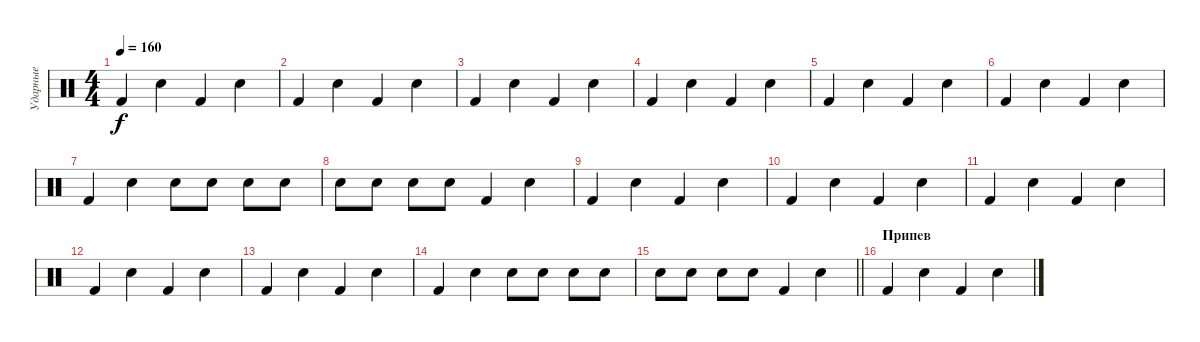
\track ("Ударные" "Ударные") {instrument percussion}
\staff {score}
\articulation defaults
\ts (4 4)
\tempo 160
\clef neutral
\ks c "Kick (hit) 2".4{dy f} "Snare (hit) 2".4 "Kick (hit) 2".4 "Snare (hit) 2".4
|
"Kick (hit) 2".4 "Snare (hit) 2".4 "Kick (hit) 2".4 "Snare (hit) 2".4 |
"Kick (hit) 2".4 "Snare (hit) 2".4 "Kick (hit) 2".4 "Snare (hit) 2".4 |
"Kick (hit) 2".4 "Snare (hit) 2".4 "Kick (hit) 2".4 "Snare (hit) 2".4 |
"Kick (hit) 2".4 "Snare (hit) 2".4 "Kick (hit) 2".4 "Snare (hit) 2".4 |
"Kick (hit) 2".4 "Snare (hit) 2".4 "Kick (hit) 2".4 "Snare (hit) 2".4 |
"Kick (hit) 2".4 "Snare (hit) 2".4 "Snare (hit) 2".8 "Snare (hit) 2".8 "Snare (hit) 2".8 "Snare (hit) 2".8 |
"Snare (hit) 2".8 "Snare (hit) 2".8 "Snare (hit) 2".8 "Snare (hit) 2".8 "Kick (hit) 2".4 "Snare (hit) 2".4 |
"Kick (hit) 2".4 "Snare (hit) 2".4 "Kick (hit) 2".4 "Snare (hit) 2".4 |
"Kick (hit) 2".4 "Snare (hit) 2".4 "Kick (hit) 2".4 "Snare (hit) 2".4 |
"Kick (hit) 2".4 "Snare (hit) 2".4 "Kick (hit) 2".4 "Snare (hit) 2".4 |
"Kick (hit) 2".4 "Snare (hit) 2".4 "Kick (hit) 2".4 "Snare (hit) 2".4 |
"Kick (hit) 2".4 "Snare (hit) 2".4 "Kick (hit) 2".4 "Snare (hit) 2".4 |
"Kick (hit) 2".4 "Snare (hit) 2".4 "Snare (hit) 2".8 "Snare (hit) 2".8 "Snare (hit) 2".8 "Snare (hit) 2".8 |
\barLineRight lightlight "Snare (hit) 2".8 "Snare (hit) 2".8 "Snare (hit) 2".8 "Snare (hit) 2".8 "Kick (hit) 2".4 "Snare (hit) 2".4
|
\section ("" "Припев")
"Kick (hit) 2".4 "Snare (hit) 2".4 "Kick (hit) 2".4 "Snare (hit) 2".4
